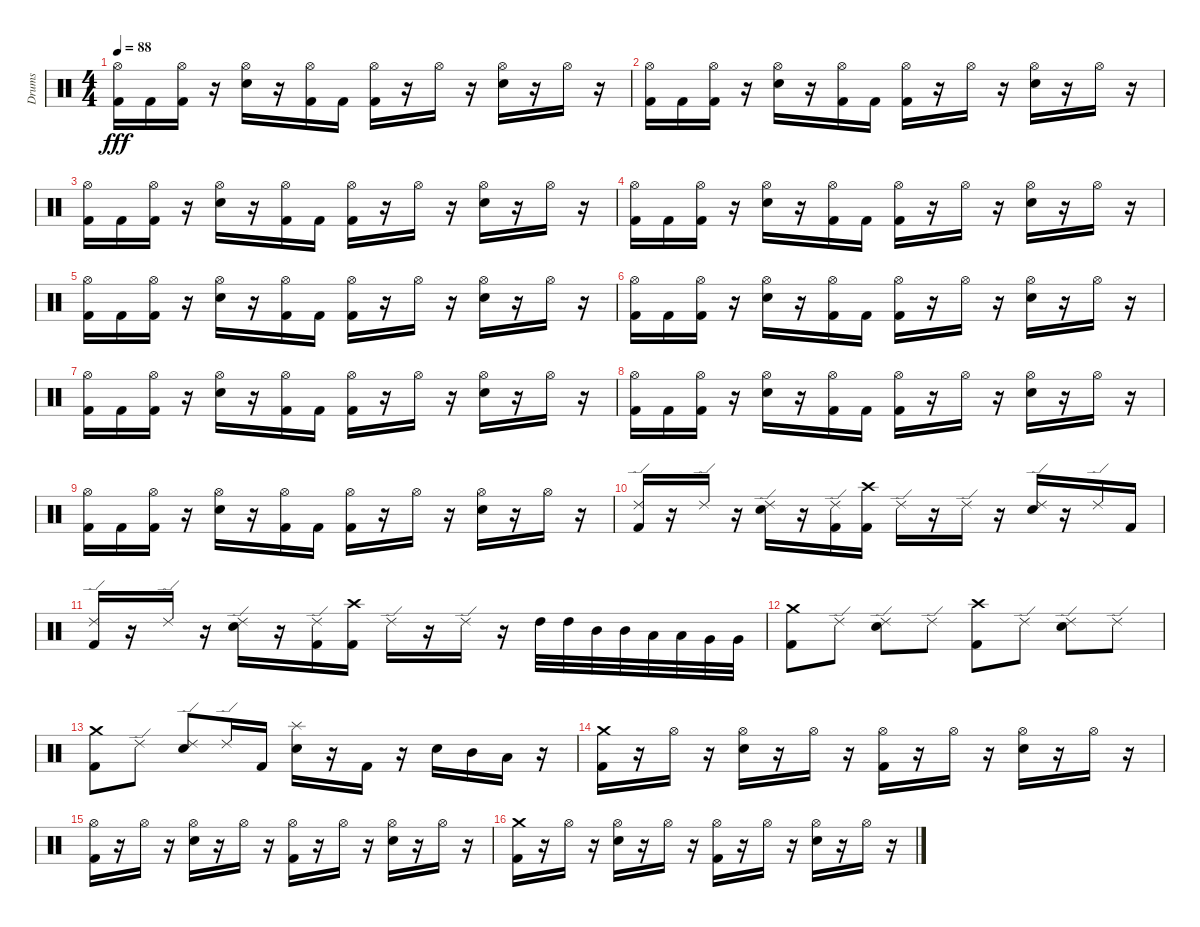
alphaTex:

\track ("Drums" "Drums") {instrument percussion}
\staff {score}
\articulation defaults
\ts (4 4)
\tempo 88
\clef neutral
\ks c
("Hi-Hat (open)" "Kick (hit) 2").16{dy fff} "Kick (hit) 2".16 ("Kick (hit) 2" "Hi-Hat (open)").16 r.16 ("Hi-Hat (open)" "Electric Snare (hit)").16 r.16 ("Kick (hit) 2" "Hi-Hat (open)").16 "Kick (hit) 2".16 ("Kick (hit) 2" "Hi-Hat (open)").16 r.16 "Hi-Hat (open)".16 r.16 ("Electric Snare (hit)" "Hi-Hat (open)").16 r.16 "Hi-Hat (open)".16 r.16 |
("Hi-Hat (open)" "Kick (hit) 2").16 "Kick (hit) 2".16 ("Kick (hit) 2" "Hi-Hat (open)").16 r.16 ("Hi-Hat (open)" "Electric Snare (hit)").16 r.16 ("Kick (hit) 2" "Hi-Hat (open)").16 "Kick (hit) 2".16 ("Kick (hit) 2" "Hi-Hat (open)").16 r.16 "Hi-Hat (open)".16 r.16 ("Electric Snare (hit)" "Hi-Hat (open)").16 r.16 "Hi-Hat (open)".16 r.16 |
("Hi-Hat (open)" "Kick (hit) 2").16 "Kick (hit) 2".16 ("Kick (hit) 2" "Hi-Hat (open)").16 r.16 ("Hi-Hat (open)" "Electric Snare (hit)").16 r.16 ("Kick (hit) 2" "Hi-Hat (open)").16 "Kick (hit) 2".16 ("Kick (hit) 2" "Hi-Hat (open)").16 r.16 "Hi-Hat (open)".16 r.16 ("Electric Snare (hit)" "Hi-Hat (open)").16 r.16 "Hi-Hat (open)".16 r.16 |
("Hi-Hat (open)" "Kick (hit) 2").16 "Kick (hit) 2".16 ("Kick (hit) 2" "Hi-Hat (open)").16 r.16 ("Hi-Hat (open)" "Electric Snare (hit)").16 r.16 ("Kick (hit) 2" "Hi-Hat (open)").16 "Kick (hit) 2".16 ("Kick (hit) 2" "Hi-Hat (open)").16 r.16 "Hi-Hat (open)".16 r.16 ("Electric Snare (hit)" "Hi-Hat (open)").16 r.16 "Hi-Hat (open)".16 r.16 |
("Hi-Hat (open)" "Kick (hit) 2").16 "Kick (hit) 2".16 ("Kick (hit) 2" "Hi-Hat (open)").16 r.16 ("Hi-Hat (open)" "Electric Snare (hit)").16 r.16 ("Kick (hit) 2" "Hi-Hat (open)").16 "Kick (hit) 2".16 ("Kick (hit) 2" "Hi-Hat (open)").16 r.16 "Hi-Hat (open)".16 r.16 ("Electric Snare (hit)" "Hi-Hat (open)").16 r.16 "Hi-Hat (open)".16 r.16 |
("Hi-Hat (open)" "Kick (hit) 2").16 "Kick (hit) 2".16 ("Kick (hit) 2" "Hi-Hat (open)").16 r.16 ("Hi-Hat (open)" "Electric Snare (hit)").16 r.16 ("Kick (hit) 2" "Hi-Hat (open)").16 "Kick (hit) 2".16 ("Kick (hit) 2" "Hi-Hat (open)").16 r.16 "Hi-Hat (open)".16 r.16 ("Electric Snare (hit)" "Hi-Hat (open)").16 r.16 "Hi-Hat (open)".16 r.16 |
("Hi-Hat (open)" "Kick (hit) 2").16 "Kick (hit) 2".16 ("Kick (hit) 2" "Hi-Hat (open)").16 r.16 ("Hi-Hat (open)" "Electric Snare (hit)").16 r.16 ("Kick (hit) 2" "Hi-Hat (open)").16 "Kick (hit) 2".16 ("Kick (hit) 2" "Hi-Hat (open)").16 r.16 "Hi-Hat (open)".16 r.16 ("Electric Snare (hit)" "Hi-Hat (open)").16 r.16 "Hi-Hat (open)".16 r.16 |
("Hi-Hat (open)" "Kick (hit) 2").16 "Kick (hit) 2".16 ("Kick (hit) 2" "Hi-Hat (open)").16 r.16 ("Hi-Hat (open)" "Electric Snare (hit)").16 r.16 ("Kick (hit) 2" "Hi-Hat (open)").16 "Kick (hit) 2".16 ("Kick (hit) 2" "Hi-Hat (open)").16 r.16 "Hi-Hat (open)".16 r.16 ("Electric Snare (hit)" "Hi-Hat (open)").16 r.16 "Hi-Hat (open)".16 r.16 |
("Hi-Hat (open)" "Kick (hit) 2").16 "Kick (hit) 2".16 ("Kick (hit) 2" "Hi-Hat (open)").16 r.16 ("Hi-Hat (open)" "Electric Snare (hit)").16 r.16 ("Kick (hit) 2" "Hi-Hat (open)").16 "Kick (hit) 2".16 ("Kick (hit) 2" "Hi-Hat (open)").16 r.16 "Hi-Hat (open)".16 r.16 ("Electric Snare (hit)" "Hi-Hat (open)").16 r.16 "Hi-Hat (open)".16 r.16 |
("Ride (edge) 2" "Kick (hit) 2").16 r.16 "Ride (edge) 2".16 r.16 ("Ride (edge) 2" "Electric Snare (hit)").16 r.16 ("Kick (hit) 2" "Ride (edge) 2").16 ("Crash high (hit)" "Kick (hit) 2").16 "Ride (edge) 2".16 r.16 "Ride (edge) 2".16 r.16 ("Ride (edge) 2" "Electric Snare (hit)").16 r.16 "Ride (edge) 2".16 "Kick (hit) 2".16 |
("Ride (edge) 2" "Kick (hit) 2").16 r.16 "Ride (edge) 2".16 r.16 ("Ride (edge) 2" "Electric Snare (hit)").16 r.16 ("Kick (hit) 2" "Ride (edge) 2").16 ("Crash high (hit)" "Kick (hit) 2").16 "Ride (edge) 2".16 r.16 "Ride (edge) 2".16 r.16 "High Tom (hit)".32 "High Tom (hit)".32 "Mid Tom (hit)".32 "Mid Tom (hit)".32 "Low Tom (hit)".32 "Low Tom (hit)".32 "Very Low Tom (hit)".32 "Very Low Tom (hit)".32 |
("Crash medium (hit)" "Kick (hit) 2").8 "Ride (edge) 2".8 ("Electric Snare (hit)" "Ride (edge) 2").8 "Ride (edge) 2".8 ("Kick (hit) 2" "Crash high (hit)").8 "Ride (edge) 2".8 ("Electric Snare (hit)" "Ride (edge) 2").8 "Ride (edge) 2".8 |
("Crash medium (hit)" "Kick (hit) 2").8 "Ride (edge) 2".8 ("Ride (edge) 2" "Electric Snare (hit)").8 "Ride (edge) 2".16 "Kick (hit) 2".16 ("Splash (hit)" "Electric Snare (hit)").16 r.16 "Kick (hit) 2".16 r.16 "Electric Snare (hit)".16 "Mid Tom (hit)".16 "Low Tom (hit)".16 r.16 |
("Kick (hit) 2" "Crash medium (hit)").16 r.16 "Hi-Hat (open)".16 r.16 ("Electric Snare (hit)" "Hi-Hat (open)").16 r.16 "Hi-Hat (open)".16 r.16 ("Kick (hit) 2" "Hi-Hat (open)").16 r.16 "Hi-Hat (open)".16 r.16 ("Electric Snare (hit)" "Hi-Hat (open)").16 r.16 "Hi-Hat (open)".16 r.16 |
("Kick (hit) 2" "Hi-Hat (open)").16 r.16 "Hi-Hat (open)".16 r.16 ("Electric Snare (hit)" "Hi-Hat (open)").16 r.16 "Hi-Hat (open)".16 r.16 ("Kick (hit) 2" "Hi-Hat (open)").16 r.16 "Hi-Hat (open)".16 r.16 ("Electric Snare (hit)" "Hi-Hat (open)").16 r.16 "Hi-Hat (open)".16 r.16 |
("Kick (hit) 2" "Crash medium (hit)").16 r.16 "Hi-Hat (open)".16 r.16 ("Electric Snare (hit)" "Hi-Hat (open)").16 r.16 "Hi-Hat (open)".16 r.16 ("Kick (hit) 2" "Hi-Hat (open)").16 r.16 "Hi-Hat (open)".16 r.16 ("Electric Snare (hit)" "Hi-Hat (open)").16 r.16 "Hi-Hat (open)".16 r.16
